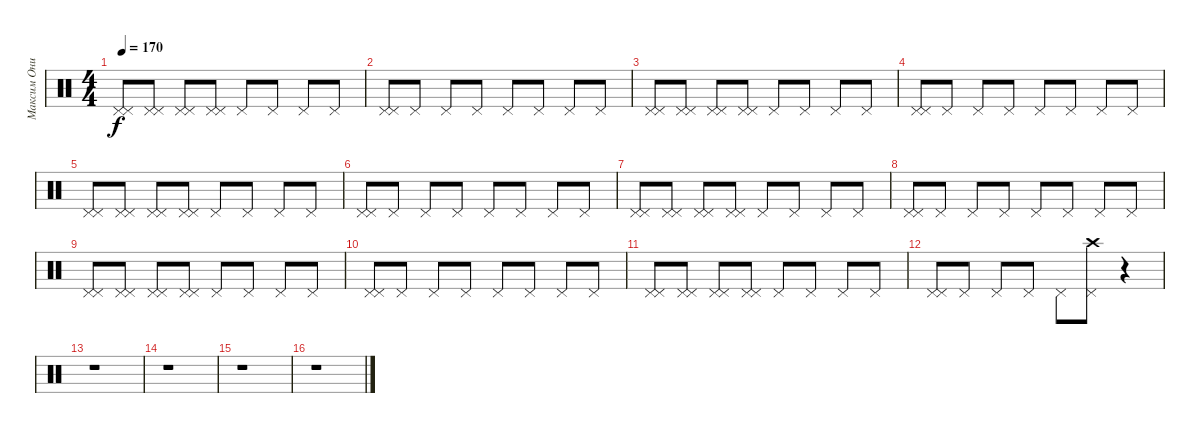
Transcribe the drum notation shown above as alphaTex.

\track ("Максим Онищенко" "Максим Они") {instrument percussion}
\staff {score}
\articulation defaults
\ts (4 4)
\tempo 170
\clef neutral
\ks c
("Pedal Hi-Hat (hit)" "Pedal Hi-Hat (hit)").8{dy f} ("Pedal Hi-Hat (hit)" "Pedal Hi-Hat (hit)").8 ("Pedal Hi-Hat (hit)" "Pedal Hi-Hat (hit)").8 ("Pedal Hi-Hat (hit)" "Pedal Hi-Hat (hit)").8 "Pedal Hi-Hat (hit)".8 "Pedal Hi-Hat (hit)".8 "Pedal Hi-Hat (hit)".8 "Pedal Hi-Hat (hit)".8 |
("Pedal Hi-Hat (hit)" "Pedal Hi-Hat (hit)").8 "Pedal Hi-Hat (hit)".8 "Pedal Hi-Hat (hit)".8 "Pedal Hi-Hat (hit)".8 "Pedal Hi-Hat (hit)".8 "Pedal Hi-Hat (hit)".8 "Pedal Hi-Hat (hit)".8 "Pedal Hi-Hat (hit)".8 |
("Pedal Hi-Hat (hit)" "Pedal Hi-Hat (hit)").8 ("Pedal Hi-Hat (hit)" "Pedal Hi-Hat (hit)").8 ("Pedal Hi-Hat (hit)" "Pedal Hi-Hat (hit)").8 ("Pedal Hi-Hat (hit)" "Pedal Hi-Hat (hit)").8 "Pedal Hi-Hat (hit)".8 "Pedal Hi-Hat (hit)".8 "Pedal Hi-Hat (hit)".8 "Pedal Hi-Hat (hit)".8 |
("Pedal Hi-Hat (hit)" "Pedal Hi-Hat (hit)").8 "Pedal Hi-Hat (hit)".8 "Pedal Hi-Hat (hit)".8 "Pedal Hi-Hat (hit)".8 "Pedal Hi-Hat (hit)".8 "Pedal Hi-Hat (hit)".8 "Pedal Hi-Hat (hit)".8 "Pedal Hi-Hat (hit)".8 |
("Pedal Hi-Hat (hit)" "Pedal Hi-Hat (hit)").8 ("Pedal Hi-Hat (hit)" "Pedal Hi-Hat (hit)").8 ("Pedal Hi-Hat (hit)" "Pedal Hi-Hat (hit)").8 ("Pedal Hi-Hat (hit)" "Pedal Hi-Hat (hit)").8 "Pedal Hi-Hat (hit)".8 "Pedal Hi-Hat (hit)".8 "Pedal Hi-Hat (hit)".8 "Pedal Hi-Hat (hit)".8 |
("Pedal Hi-Hat (hit)" "Pedal Hi-Hat (hit)").8 "Pedal Hi-Hat (hit)".8 "Pedal Hi-Hat (hit)".8 "Pedal Hi-Hat (hit)".8 "Pedal Hi-Hat (hit)".8 "Pedal Hi-Hat (hit)".8 "Pedal Hi-Hat (hit)".8 "Pedal Hi-Hat (hit)".8 |
("Pedal Hi-Hat (hit)" "Pedal Hi-Hat (hit)").8 ("Pedal Hi-Hat (hit)" "Pedal Hi-Hat (hit)").8 ("Pedal Hi-Hat (hit)" "Pedal Hi-Hat (hit)").8 ("Pedal Hi-Hat (hit)" "Pedal Hi-Hat (hit)").8 "Pedal Hi-Hat (hit)".8 "Pedal Hi-Hat (hit)".8 "Pedal Hi-Hat (hit)".8 "Pedal Hi-Hat (hit)".8 |
("Pedal Hi-Hat (hit)" "Pedal Hi-Hat (hit)").8 "Pedal Hi-Hat (hit)".8 "Pedal Hi-Hat (hit)".8 "Pedal Hi-Hat (hit)".8 "Pedal Hi-Hat (hit)".8 "Pedal Hi-Hat (hit)".8 "Pedal Hi-Hat (hit)".8 "Pedal Hi-Hat (hit)".8 |
("Pedal Hi-Hat (hit)" "Pedal Hi-Hat (hit)").8 ("Pedal Hi-Hat (hit)" "Pedal Hi-Hat (hit)").8 ("Pedal Hi-Hat (hit)" "Pedal Hi-Hat (hit)").8 ("Pedal Hi-Hat (hit)" "Pedal Hi-Hat (hit)").8 "Pedal Hi-Hat (hit)".8 "Pedal Hi-Hat (hit)".8 "Pedal Hi-Hat (hit)".8 "Pedal Hi-Hat (hit)".8 |
("Pedal Hi-Hat (hit)" "Pedal Hi-Hat (hit)").8 "Pedal Hi-Hat (hit)".8 "Pedal Hi-Hat (hit)".8 "Pedal Hi-Hat (hit)".8 "Pedal Hi-Hat (hit)".8 "Pedal Hi-Hat (hit)".8 "Pedal Hi-Hat (hit)".8 "Pedal Hi-Hat (hit)".8 |
("Pedal Hi-Hat (hit)" "Pedal Hi-Hat (hit)").8 ("Pedal Hi-Hat (hit)" "Pedal Hi-Hat (hit)").8 ("Pedal Hi-Hat (hit)" "Pedal Hi-Hat (hit)").8 ("Pedal Hi-Hat (hit)" "Pedal Hi-Hat (hit)").8 "Pedal Hi-Hat (hit)".8 "Pedal Hi-Hat (hit)".8 "Pedal Hi-Hat (hit)".8 "Pedal Hi-Hat (hit)".8 |
("Pedal Hi-Hat (hit)" "Pedal Hi-Hat (hit)").8 "Pedal Hi-Hat (hit)".8 "Pedal Hi-Hat (hit)".8 "Pedal Hi-Hat (hit)".8 "Pedal Hi-Hat (hit)".8 ("Pedal Hi-Hat (hit)" "Crash high (hit)").8 r.4 |
r.1 |
r.1 |
r.1 |
r.1
